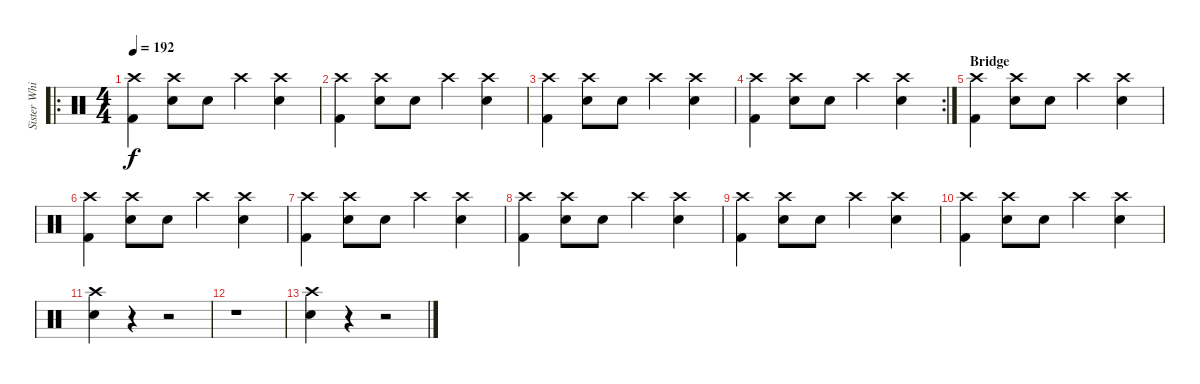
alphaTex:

\track ("Sister White" "Sister Whi") {instrument percussion}
\staff {score}
\articulation defaults
\ro
\ts (4 4)
\tempo 192
\clef neutral
\ks c
("Crash high (hit)" "Kick (hit) 2").4{dy f} ("Crash high (hit)" "Electric Snare (hit)").8 "Electric Snare (hit)".8 "Crash high (hit)".4 ("Crash high (hit)" "Electric Snare (hit)").4 |
("Crash high (hit)" "Kick (hit) 2").4 ("Crash high (hit)" "Electric Snare (hit)").8 "Electric Snare (hit)".8 "Crash high (hit)".4 ("Crash high (hit)" "Electric Snare (hit)").4 |
("Crash high (hit)" "Kick (hit) 2").4 ("Crash high (hit)" "Electric Snare (hit)").8 "Electric Snare (hit)".8 "Crash high (hit)".4 ("Crash high (hit)" "Electric Snare (hit)").4 |
\rc 2
("Crash high (hit)" "Kick (hit) 2").4 ("Crash high (hit)" "Electric Snare (hit)").8 "Electric Snare (hit)".8 "Crash high (hit)".4 ("Crash high (hit)" "Electric Snare (hit)").4 |
\section ("" "Bridge")
("Crash high (hit)" "Kick (hit) 2").4 ("Crash high (hit)" "Electric Snare (hit)").8 "Electric Snare (hit)".8 "Crash high (hit)".4 ("Crash high (hit)" "Electric Snare (hit)").4 |
("Crash high (hit)" "Kick (hit) 2").4 ("Crash high (hit)" "Electric Snare (hit)").8 "Electric Snare (hit)".8 "Crash high (hit)".4 ("Crash high (hit)" "Electric Snare (hit)").4 |
("Crash high (hit)" "Kick (hit) 2").4 ("Crash high (hit)" "Electric Snare (hit)").8 "Electric Snare (hit)".8 "Crash high (hit)".4 ("Crash high (hit)" "Electric Snare (hit)").4 |
("Crash high (hit)" "Kick (hit) 2").4 ("Crash high (hit)" "Electric Snare (hit)").8 "Electric Snare (hit)".8 "Crash high (hit)".4 ("Crash high (hit)" "Electric Snare (hit)").4 |
("Crash high (hit)" "Kick (hit) 2").4 ("Crash high (hit)" "Electric Snare (hit)").8 "Electric Snare (hit)".8 "Crash high (hit)".4 ("Crash high (hit)" "Electric Snare (hit)").4 |
("Crash high (hit)" "Kick (hit) 2").4 ("Crash high (hit)" "Electric Snare (hit)").8 "Electric Snare (hit)".8 "Crash high (hit)".4 ("Crash high (hit)" "Electric Snare (hit)").4 |
("Crash high (hit)" "Electric Snare (hit)").4 r.4 r.2 |
r.1 |
("Crash high (hit)" "Electric Snare (hit)").4 r.4 r.2
